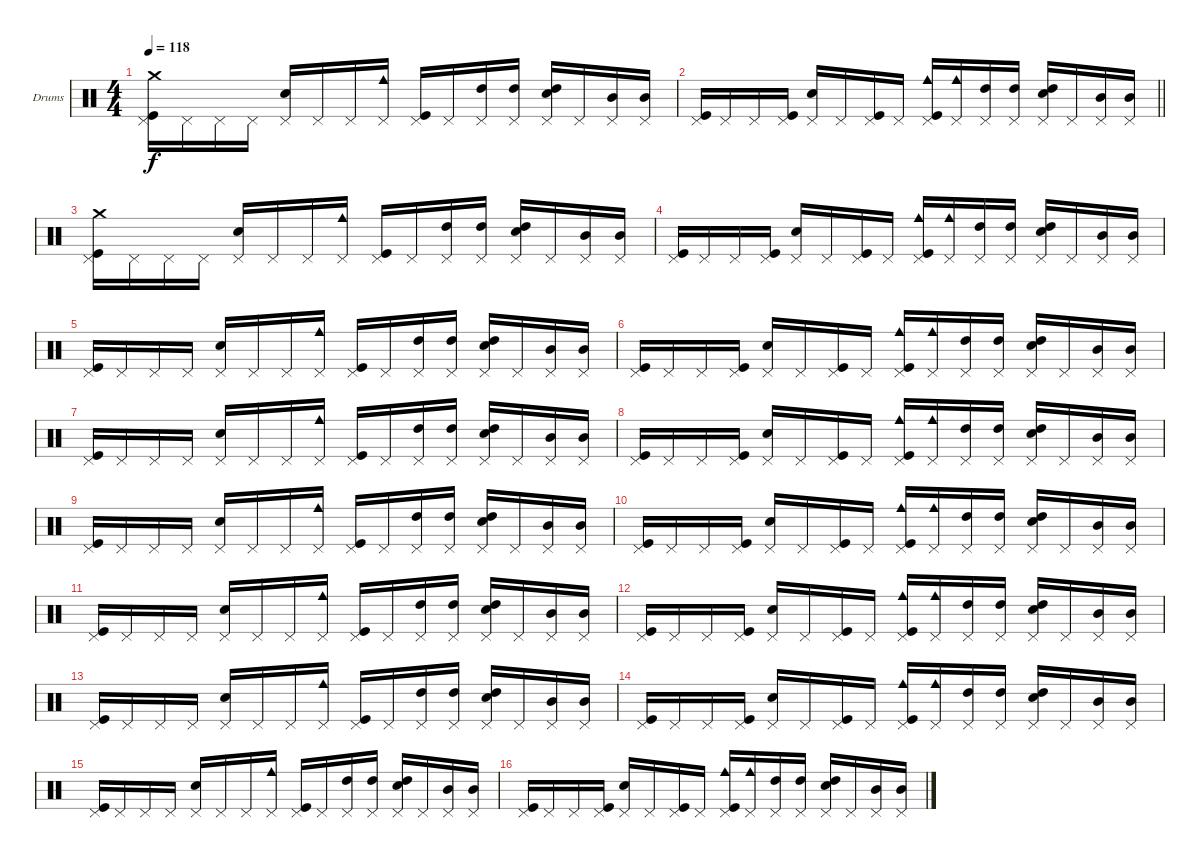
\bracketExtendMode groupsimilarinstruments
\firstSystemTrackNameOrientation horizontal
\otherSystemsTrackNameOrientation horizontal
\track ("Уданые" "Drums") {instrument percussion}
\staff {score}
\articulation defaults
\ts (4 4)
\tempo 118
\clef neutral
\ks c
("Pedal Hi-Hat (hit)" "Kick (hit)" "Crash medium (hit)").16{dy f} "Pedal Hi-Hat (hit)".16 "Pedal Hi-Hat (hit)".16 "Pedal Hi-Hat (hit)".16 ("Pedal Hi-Hat (hit)" "Snare (hit) 2").16 "Pedal Hi-Hat (hit)".16 "Pedal Hi-Hat (hit)".16 ("Pedal Hi-Hat (hit)" "Cowbell medium (hit)").16 ("Pedal Hi-Hat (hit)" "Kick (hit)").16 "Pedal Hi-Hat (hit)".16 ("Pedal Hi-Hat (hit)" "High Tom (hit)").16 ("Pedal Hi-Hat (hit)" "High Tom (hit)").16 ("Pedal Hi-Hat (hit)" "High Tom (hit)" "Snare (hit) 2").16 "Pedal Hi-Hat (hit)".16 ("Pedal Hi-Hat (hit)" "Mid Tom (hit)").16 ("Pedal Hi-Hat (hit)" "Mid Tom (hit)").16 |
\barLineRight lightlight
("Pedal Hi-Hat (hit)" "Kick (hit)").16 "Pedal Hi-Hat (hit)".16 "Pedal Hi-Hat (hit)".16 ("Pedal Hi-Hat (hit)" "Kick (hit)").16 ("Pedal Hi-Hat (hit)" "Snare (hit) 2").16 "Pedal Hi-Hat (hit)".16 ("Pedal Hi-Hat (hit)" "Kick (hit)").16 "Pedal Hi-Hat (hit)".16 ("Pedal Hi-Hat (hit)" "Kick (hit)" "Cowbell medium (hit)").16 ("Pedal Hi-Hat (hit)" "Cowbell medium (hit)").16 ("Pedal Hi-Hat (hit)" "High Tom (hit)").16 ("Pedal Hi-Hat (hit)" "High Tom (hit)").16 ("Pedal Hi-Hat (hit)" "High Tom (hit)" "Snare (hit) 2").16 "Pedal Hi-Hat (hit)".16 ("Pedal Hi-Hat (hit)" "Mid Tom (hit)").16 ("Pedal Hi-Hat (hit)" "Mid Tom (hit)").16 |
("Pedal Hi-Hat (hit)" "Kick (hit)" "Crash medium (hit)").16 "Pedal Hi-Hat (hit)".16 "Pedal Hi-Hat (hit)".16 "Pedal Hi-Hat (hit)".16 ("Pedal Hi-Hat (hit)" "Snare (hit) 2").16 "Pedal Hi-Hat (hit)".16 "Pedal Hi-Hat (hit)".16 ("Pedal Hi-Hat (hit)" "Cowbell medium (hit)").16 ("Pedal Hi-Hat (hit)" "Kick (hit)").16 "Pedal Hi-Hat (hit)".16 ("Pedal Hi-Hat (hit)" "High Tom (hit)").16 ("Pedal Hi-Hat (hit)" "High Tom (hit)").16 ("Pedal Hi-Hat (hit)" "High Tom (hit)" "Snare (hit) 2").16 "Pedal Hi-Hat (hit)".16 ("Pedal Hi-Hat (hit)" "Mid Tom (hit)").16 ("Pedal Hi-Hat (hit)" "Mid Tom (hit)").16 |
("Pedal Hi-Hat (hit)" "Kick (hit)").16 "Pedal Hi-Hat (hit)".16 "Pedal Hi-Hat (hit)".16 ("Pedal Hi-Hat (hit)" "Kick (hit)").16 ("Pedal Hi-Hat (hit)" "Snare (hit) 2").16 "Pedal Hi-Hat (hit)".16 ("Pedal Hi-Hat (hit)" "Kick (hit)").16 "Pedal Hi-Hat (hit)".16 ("Pedal Hi-Hat (hit)" "Kick (hit)" "Cowbell medium (hit)").16 ("Pedal Hi-Hat (hit)" "Cowbell medium (hit)").16 ("Pedal Hi-Hat (hit)" "High Tom (hit)").16 ("Pedal Hi-Hat (hit)" "High Tom (hit)").16 ("Pedal Hi-Hat (hit)" "High Tom (hit)" "Snare (hit) 2").16 "Pedal Hi-Hat (hit)".16 ("Pedal Hi-Hat (hit)" "Mid Tom (hit)").16 ("Pedal Hi-Hat (hit)" "Mid Tom (hit)").16 |
("Pedal Hi-Hat (hit)" "Kick (hit)").16 "Pedal Hi-Hat (hit)".16 "Pedal Hi-Hat (hit)".16 "Pedal Hi-Hat (hit)".16 ("Pedal Hi-Hat (hit)" "Snare (hit) 2").16 "Pedal Hi-Hat (hit)".16 "Pedal Hi-Hat (hit)".16 ("Pedal Hi-Hat (hit)" "Cowbell medium (hit)").16 ("Pedal Hi-Hat (hit)" "Kick (hit)").16 "Pedal Hi-Hat (hit)".16 ("Pedal Hi-Hat (hit)" "High Tom (hit)").16 ("Pedal Hi-Hat (hit)" "High Tom (hit)").16 ("Pedal Hi-Hat (hit)" "High Tom (hit)" "Snare (hit) 2").16 "Pedal Hi-Hat (hit)".16 ("Pedal Hi-Hat (hit)" "Mid Tom (hit)").16 ("Pedal Hi-Hat (hit)" "Mid Tom (hit)").16 |
("Pedal Hi-Hat (hit)" "Kick (hit)").16 "Pedal Hi-Hat (hit)".16 "Pedal Hi-Hat (hit)".16 ("Pedal Hi-Hat (hit)" "Kick (hit)").16 ("Pedal Hi-Hat (hit)" "Snare (hit) 2").16 "Pedal Hi-Hat (hit)".16 ("Pedal Hi-Hat (hit)" "Kick (hit)").16 "Pedal Hi-Hat (hit)".16 ("Pedal Hi-Hat (hit)" "Kick (hit)" "Cowbell medium (hit)").16 ("Pedal Hi-Hat (hit)" "Cowbell medium (hit)").16 ("Pedal Hi-Hat (hit)" "High Tom (hit)").16 ("Pedal Hi-Hat (hit)" "High Tom (hit)").16 ("Pedal Hi-Hat (hit)" "High Tom (hit)" "Snare (hit) 2").16 "Pedal Hi-Hat (hit)".16 ("Pedal Hi-Hat (hit)" "Mid Tom (hit)").16 ("Pedal Hi-Hat (hit)" "Mid Tom (hit)").16 |
("Pedal Hi-Hat (hit)" "Kick (hit)").16 "Pedal Hi-Hat (hit)".16 "Pedal Hi-Hat (hit)".16 "Pedal Hi-Hat (hit)".16 ("Pedal Hi-Hat (hit)" "Snare (hit) 2").16 "Pedal Hi-Hat (hit)".16 "Pedal Hi-Hat (hit)".16 ("Pedal Hi-Hat (hit)" "Cowbell medium (hit)").16 ("Pedal Hi-Hat (hit)" "Kick (hit)").16 "Pedal Hi-Hat (hit)".16 ("Pedal Hi-Hat (hit)" "High Tom (hit)").16 ("Pedal Hi-Hat (hit)" "High Tom (hit)").16 ("Pedal Hi-Hat (hit)" "High Tom (hit)" "Snare (hit) 2").16 "Pedal Hi-Hat (hit)".16 ("Pedal Hi-Hat (hit)" "Mid Tom (hit)").16 ("Pedal Hi-Hat (hit)" "Mid Tom (hit)").16 |
("Pedal Hi-Hat (hit)" "Kick (hit)").16 "Pedal Hi-Hat (hit)".16 "Pedal Hi-Hat (hit)".16 ("Pedal Hi-Hat (hit)" "Kick (hit)").16 ("Pedal Hi-Hat (hit)" "Snare (hit) 2").16 "Pedal Hi-Hat (hit)".16 ("Pedal Hi-Hat (hit)" "Kick (hit)").16 "Pedal Hi-Hat (hit)".16 ("Pedal Hi-Hat (hit)" "Kick (hit)" "Cowbell medium (hit)").16 ("Pedal Hi-Hat (hit)" "Cowbell medium (hit)").16 ("Pedal Hi-Hat (hit)" "High Tom (hit)").16 ("Pedal Hi-Hat (hit)" "High Tom (hit)").16 ("Pedal Hi-Hat (hit)" "High Tom (hit)" "Snare (hit) 2").16 "Pedal Hi-Hat (hit)".16 ("Pedal Hi-Hat (hit)" "Mid Tom (hit)").16 ("Pedal Hi-Hat (hit)" "Mid Tom (hit)").16 |
("Pedal Hi-Hat (hit)" "Kick (hit)").16 "Pedal Hi-Hat (hit)".16 "Pedal Hi-Hat (hit)".16 "Pedal Hi-Hat (hit)".16 ("Pedal Hi-Hat (hit)" "Snare (hit) 2").16 "Pedal Hi-Hat (hit)".16 "Pedal Hi-Hat (hit)".16 ("Pedal Hi-Hat (hit)" "Cowbell medium (hit)").16 ("Pedal Hi-Hat (hit)" "Kick (hit)").16 "Pedal Hi-Hat (hit)".16 ("Pedal Hi-Hat (hit)" "High Tom (hit)").16 ("Pedal Hi-Hat (hit)" "High Tom (hit)").16 ("Pedal Hi-Hat (hit)" "High Tom (hit)" "Snare (hit) 2").16 "Pedal Hi-Hat (hit)".16 ("Pedal Hi-Hat (hit)" "Mid Tom (hit)").16 ("Pedal Hi-Hat (hit)" "Mid Tom (hit)").16 |
("Pedal Hi-Hat (hit)" "Kick (hit)").16 "Pedal Hi-Hat (hit)".16 "Pedal Hi-Hat (hit)".16 ("Pedal Hi-Hat (hit)" "Kick (hit)").16 ("Pedal Hi-Hat (hit)" "Snare (hit) 2").16 "Pedal Hi-Hat (hit)".16 ("Pedal Hi-Hat (hit)" "Kick (hit)").16 "Pedal Hi-Hat (hit)".16 ("Pedal Hi-Hat (hit)" "Kick (hit)" "Cowbell medium (hit)").16 ("Pedal Hi-Hat (hit)" "Cowbell medium (hit)").16 ("Pedal Hi-Hat (hit)" "High Tom (hit)").16 ("Pedal Hi-Hat (hit)" "High Tom (hit)").16 ("Pedal Hi-Hat (hit)" "High Tom (hit)" "Snare (hit) 2").16 "Pedal Hi-Hat (hit)".16 ("Pedal Hi-Hat (hit)" "Mid Tom (hit)").16 ("Pedal Hi-Hat (hit)" "Mid Tom (hit)").16 |
("Pedal Hi-Hat (hit)" "Kick (hit)").16 "Pedal Hi-Hat (hit)".16 "Pedal Hi-Hat (hit)".16 "Pedal Hi-Hat (hit)".16 ("Pedal Hi-Hat (hit)" "Snare (hit) 2").16 "Pedal Hi-Hat (hit)".16 "Pedal Hi-Hat (hit)".16 ("Pedal Hi-Hat (hit)" "Cowbell medium (hit)").16 ("Pedal Hi-Hat (hit)" "Kick (hit)").16 "Pedal Hi-Hat (hit)".16 ("Pedal Hi-Hat (hit)" "High Tom (hit)").16 ("Pedal Hi-Hat (hit)" "High Tom (hit)").16 ("Pedal Hi-Hat (hit)" "High Tom (hit)" "Snare (hit) 2").16 "Pedal Hi-Hat (hit)".16 ("Pedal Hi-Hat (hit)" "Mid Tom (hit)").16 ("Pedal Hi-Hat (hit)" "Mid Tom (hit)").16 |
("Pedal Hi-Hat (hit)" "Kick (hit)").16 "Pedal Hi-Hat (hit)".16 "Pedal Hi-Hat (hit)".16 ("Pedal Hi-Hat (hit)" "Kick (hit)").16 ("Pedal Hi-Hat (hit)" "Snare (hit) 2").16 "Pedal Hi-Hat (hit)".16 ("Pedal Hi-Hat (hit)" "Kick (hit)").16 "Pedal Hi-Hat (hit)".16 ("Pedal Hi-Hat (hit)" "Kick (hit)" "Cowbell medium (hit)").16 ("Pedal Hi-Hat (hit)" "Cowbell medium (hit)").16 ("Pedal Hi-Hat (hit)" "High Tom (hit)").16 ("Pedal Hi-Hat (hit)" "High Tom (hit)").16 ("Pedal Hi-Hat (hit)" "High Tom (hit)" "Snare (hit) 2").16 "Pedal Hi-Hat (hit)".16 ("Pedal Hi-Hat (hit)" "Mid Tom (hit)").16 ("Pedal Hi-Hat (hit)" "Mid Tom (hit)").16 |
("Pedal Hi-Hat (hit)" "Kick (hit)").16 "Pedal Hi-Hat (hit)".16 "Pedal Hi-Hat (hit)".16 "Pedal Hi-Hat (hit)".16 ("Pedal Hi-Hat (hit)" "Snare (hit) 2").16 "Pedal Hi-Hat (hit)".16 "Pedal Hi-Hat (hit)".16 ("Pedal Hi-Hat (hit)" "Cowbell medium (hit)").16 ("Pedal Hi-Hat (hit)" "Kick (hit)").16 "Pedal Hi-Hat (hit)".16 ("Pedal Hi-Hat (hit)" "High Tom (hit)").16 ("Pedal Hi-Hat (hit)" "High Tom (hit)").16 ("Pedal Hi-Hat (hit)" "High Tom (hit)" "Snare (hit) 2").16 "Pedal Hi-Hat (hit)".16 ("Pedal Hi-Hat (hit)" "Mid Tom (hit)").16 ("Pedal Hi-Hat (hit)" "Mid Tom (hit)").16 |
("Pedal Hi-Hat (hit)" "Kick (hit)").16 "Pedal Hi-Hat (hit)".16 "Pedal Hi-Hat (hit)".16 ("Pedal Hi-Hat (hit)" "Kick (hit)").16 ("Pedal Hi-Hat (hit)" "Snare (hit) 2").16 "Pedal Hi-Hat (hit)".16 ("Pedal Hi-Hat (hit)" "Kick (hit)").16 "Pedal Hi-Hat (hit)".16 ("Pedal Hi-Hat (hit)" "Kick (hit)" "Cowbell medium (hit)").16 ("Pedal Hi-Hat (hit)" "Cowbell medium (hit)").16 ("Pedal Hi-Hat (hit)" "High Tom (hit)").16 ("Pedal Hi-Hat (hit)" "High Tom (hit)").16 ("Pedal Hi-Hat (hit)" "High Tom (hit)" "Snare (hit) 2").16 "Pedal Hi-Hat (hit)".16 ("Pedal Hi-Hat (hit)" "Mid Tom (hit)").16 ("Pedal Hi-Hat (hit)" "Mid Tom (hit)").16 |
("Pedal Hi-Hat (hit)" "Kick (hit)").16 "Pedal Hi-Hat (hit)".16 "Pedal Hi-Hat (hit)".16 "Pedal Hi-Hat (hit)".16 ("Pedal Hi-Hat (hit)" "Snare (hit) 2").16 "Pedal Hi-Hat (hit)".16 "Pedal Hi-Hat (hit)".16 ("Pedal Hi-Hat (hit)" "Cowbell medium (hit)").16 ("Pedal Hi-Hat (hit)" "Kick (hit)").16 "Pedal Hi-Hat (hit)".16 ("Pedal Hi-Hat (hit)" "High Tom (hit)").16 ("Pedal Hi-Hat (hit)" "High Tom (hit)").16 ("Pedal Hi-Hat (hit)" "High Tom (hit)" "Snare (hit) 2").16 "Pedal Hi-Hat (hit)".16 ("Pedal Hi-Hat (hit)" "Mid Tom (hit)").16 ("Pedal Hi-Hat (hit)" "Mid Tom (hit)").16 |
("Pedal Hi-Hat (hit)" "Kick (hit)").16 "Pedal Hi-Hat (hit)".16 "Pedal Hi-Hat (hit)".16 ("Pedal Hi-Hat (hit)" "Kick (hit)").16 ("Pedal Hi-Hat (hit)" "Snare (hit) 2").16 "Pedal Hi-Hat (hit)".16 ("Pedal Hi-Hat (hit)" "Kick (hit)").16 "Pedal Hi-Hat (hit)".16 ("Pedal Hi-Hat (hit)" "Kick (hit)" "Cowbell medium (hit)").16 ("Pedal Hi-Hat (hit)" "Cowbell medium (hit)").16 ("Pedal Hi-Hat (hit)" "High Tom (hit)").16 ("Pedal Hi-Hat (hit)" "High Tom (hit)").16 ("Pedal Hi-Hat (hit)" "High Tom (hit)" "Snare (hit) 2").16 "Pedal Hi-Hat (hit)".16 ("Pedal Hi-Hat (hit)" "Mid Tom (hit)").16 ("Pedal Hi-Hat (hit)" "Mid Tom (hit)").16
